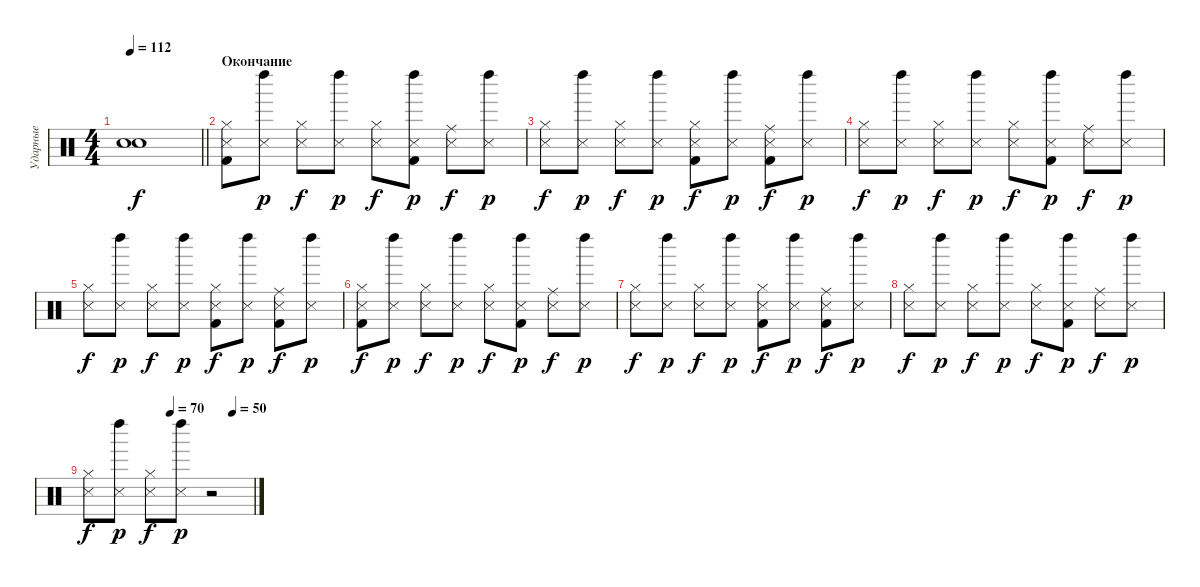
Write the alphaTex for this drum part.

\track ("Ударные" "Ударные") {instrument percussion}
\staff {score}
\articulation defaults
\ts (4 4)
\tempo 112
\clef neutral
\barLineRight lightlight
\ks c
("Electric Snare (hit)" "Snare (hit) 2").1{dy f} |
\section ("" "Окончание")
("Snare (side stick) 3" "Hi-Hat (closed)" "Kick (hit) 2").8 ("Left Maraca (hit)" "Metronome (hit)").8{dy p} ("Snare (side stick) 3" "Hi-Hat (closed)").8{dy f} ("Left Maraca (hit)" "Metronome (hit)").8{dy p} ("Snare (side stick) 3" "Hi-Hat (closed)").8{dy f} ("Left Maraca (hit)" "Metronome (hit)" "Kick (hit) 2").8{dy p} ("Snare (side stick) 3" "Ride (middle)").8{dy f} ("Left Maraca (hit)" "Metronome (hit)").8{dy p} |
("Snare (side stick) 3" "Hi-Hat (closed)").8{dy f} ("Left Maraca (hit)" "Metronome (hit)").8{dy p} ("Snare (side stick) 3" "Hi-Hat (closed)").8{dy f} ("Left Maraca (hit)" "Metronome (hit)").8{dy p} ("Snare (side stick) 3" "Hi-Hat (closed)" "Kick (hit) 2").8{dy f} ("Left Maraca (hit)" "Metronome (hit)").8{dy p} ("Snare (side stick) 3" "Ride (middle)" "Kick (hit) 2").8{dy f} ("Left Maraca (hit)" "Metronome (hit)").8{dy p} |
("Snare (side stick) 3" "Hi-Hat (closed)").8{dy f} ("Left Maraca (hit)" "Metronome (hit)").8{dy p} ("Snare (side stick) 3" "Hi-Hat (closed)").8{dy f} ("Left Maraca (hit)" "Metronome (hit)").8{dy p} ("Snare (side stick) 3" "Hi-Hat (closed)").8{dy f} ("Left Maraca (hit)" "Metronome (hit)" "Kick (hit) 2").8{dy p} ("Snare (side stick) 3" "Ride (middle)").8{dy f} ("Left Maraca (hit)" "Metronome (hit)").8{dy p} |
("Snare (side stick) 3" "Hi-Hat (closed)").8{dy f} ("Left Maraca (hit)" "Metronome (hit)").8{dy p} ("Snare (side stick) 3" "Hi-Hat (closed)").8{dy f} ("Left Maraca (hit)" "Metronome (hit)").8{dy p} ("Snare (side stick) 3" "Hi-Hat (closed)" "Kick (hit) 2").8{dy f} ("Left Maraca (hit)" "Metronome (hit)").8{dy p} ("Snare (side stick) 3" "Ride (middle)" "Kick (hit) 2").8{dy f} ("Left Maraca (hit)" "Metronome (hit)").8{dy p} |
("Snare (side stick) 3" "Hi-Hat (closed)" "Kick (hit) 2").8{dy f} ("Left Maraca (hit)" "Metronome (hit)").8{dy p} ("Snare (side stick) 3" "Hi-Hat (closed)").8{dy f} ("Left Maraca (hit)" "Metronome (hit)").8{dy p} ("Snare (side stick) 3" "Hi-Hat (closed)").8{dy f} ("Left Maraca (hit)" "Metronome (hit)" "Kick (hit) 2").8{dy p} ("Snare (side stick) 3" "Ride (middle)").8{dy f} ("Left Maraca (hit)" "Metronome (hit)").8{dy p} |
("Snare (side stick) 3" "Hi-Hat (closed)").8{dy f} ("Left Maraca (hit)" "Metronome (hit)").8{dy p} ("Snare (side stick) 3" "Hi-Hat (closed)").8{dy f} ("Left Maraca (hit)" "Metronome (hit)").8{dy p} ("Snare (side stick) 3" "Hi-Hat (closed)" "Kick (hit) 2").8{dy f} ("Left Maraca (hit)" "Metronome (hit)").8{dy p} ("Snare (side stick) 3" "Ride (middle)" "Kick (hit) 2").8{dy f} ("Left Maraca (hit)" "Metronome (hit)").8{dy p} |
("Snare (side stick) 3" "Hi-Hat (closed)").8{dy f} ("Left Maraca (hit)" "Metronome (hit)").8{dy p} ("Snare (side stick) 3" "Hi-Hat (closed)").8{dy f} ("Left Maraca (hit)" "Metronome (hit)").8{dy p} ("Snare (side stick) 3" "Hi-Hat (closed)").8{dy f} ("Left Maraca (hit)" "Metronome (hit)" "Kick (hit) 2").8{dy p} ("Snare (side stick) 3" "Ride (middle)").8{dy f} ("Left Maraca (hit)" "Metronome (hit)").8{dy p} |
\tempo (70 0.5)
\tempo (50 0.875)
("Snare (side stick) 3" "Hi-Hat (closed)").8{dy f} ("Left Maraca (hit)" "Metronome (hit)").8{dy p} ("Snare (side stick) 3" "Hi-Hat (closed)").8{dy f} ("Left Maraca (hit)" "Metronome (hit)").8{dy p} r.2
